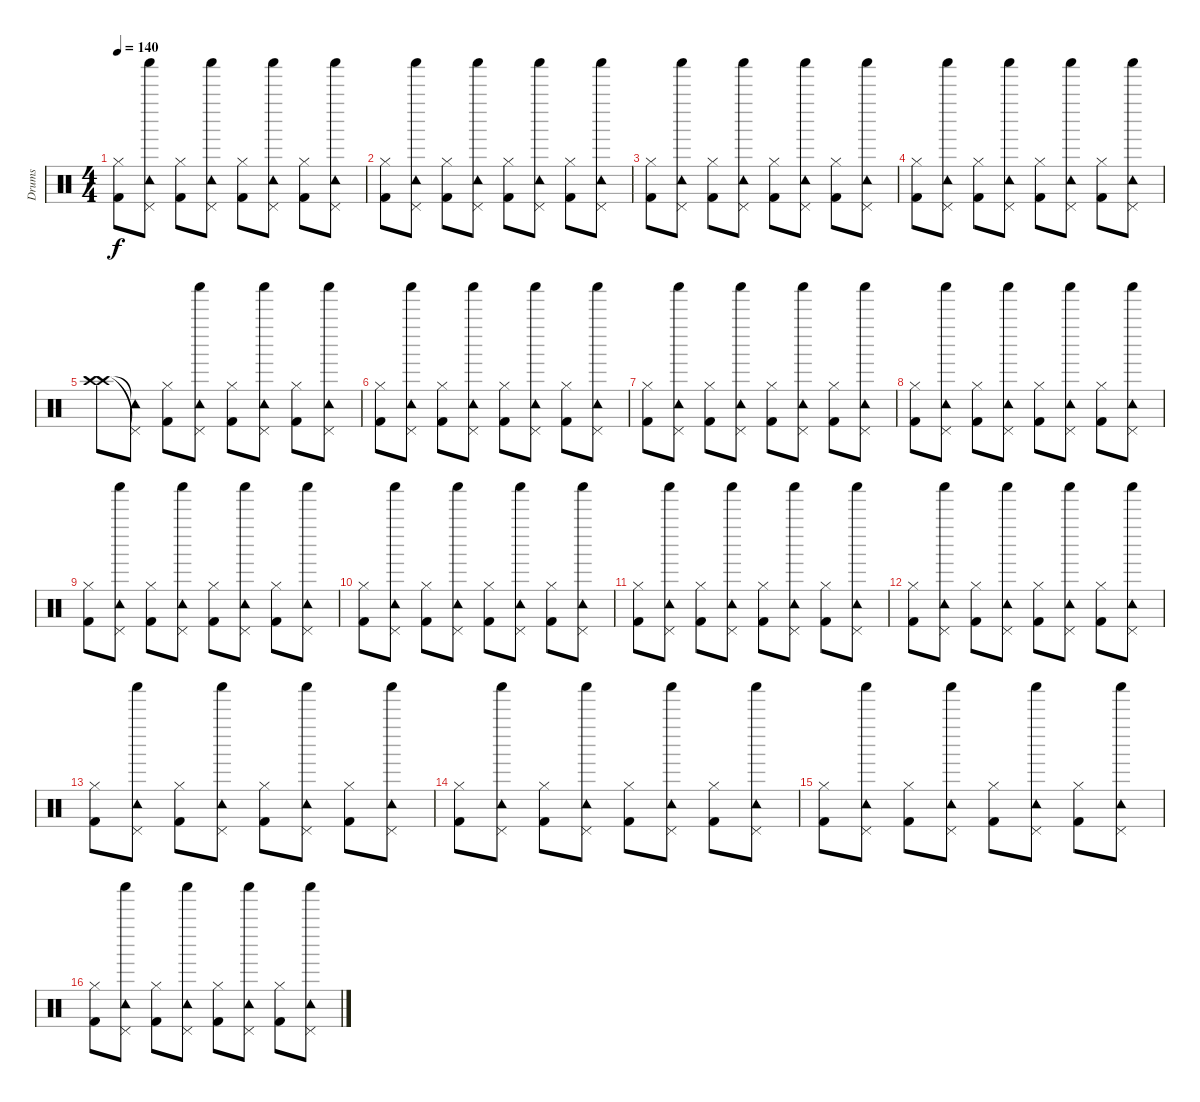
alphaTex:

\track ("Drums" "Drums") {instrument percussion}
\staff {score}
\articulation defaults
\ts (4 4)
\tempo 140
\clef neutral
\ks c
("Kick (hit) 2" "Hi-Hat (closed)").8{dy f} ("Pedal Hi-Hat (hit)" "Tambourine (hit)" "Shaker (hit)").8 ("Kick (hit) 2" "Hi-Hat (closed)").8 ("Pedal Hi-Hat (hit)" "Tambourine (hit)" "Shaker (hit)").8 ("Kick (hit) 2" "Hi-Hat (closed)").8 ("Pedal Hi-Hat (hit)" "Tambourine (hit)" "Shaker (hit)").8 ("Kick (hit) 2" "Hi-Hat (closed)").8 ("Pedal Hi-Hat (hit)" "Tambourine (hit)" "Shaker (hit)").8 |
("Kick (hit) 2" "Hi-Hat (closed)").8 ("Pedal Hi-Hat (hit)" "Tambourine (hit)" "Shaker (hit)").8 ("Kick (hit) 2" "Hi-Hat (closed)").8 ("Pedal Hi-Hat (hit)" "Tambourine (hit)" "Shaker (hit)").8 ("Kick (hit) 2" "Hi-Hat (closed)").8 ("Pedal Hi-Hat (hit)" "Tambourine (hit)" "Shaker (hit)").8 ("Kick (hit) 2" "Hi-Hat (closed)").8 ("Pedal Hi-Hat (hit)" "Tambourine (hit)" "Shaker (hit)").8 |
("Kick (hit) 2" "Hi-Hat (closed)").8 ("Pedal Hi-Hat (hit)" "Tambourine (hit)" "Shaker (hit)").8 ("Kick (hit) 2" "Hi-Hat (closed)").8 ("Pedal Hi-Hat (hit)" "Tambourine (hit)" "Shaker (hit)").8 ("Kick (hit) 2" "Hi-Hat (closed)").8 ("Pedal Hi-Hat (hit)" "Tambourine (hit)" "Shaker (hit)").8 ("Kick (hit) 2" "Hi-Hat (closed)").8 ("Pedal Hi-Hat (hit)" "Tambourine (hit)" "Shaker (hit)").8 |
("Kick (hit) 2" "Hi-Hat (closed)").8 ("Pedal Hi-Hat (hit)" "Tambourine (hit)" "Shaker (hit)").8 ("Kick (hit) 2" "Hi-Hat (closed)").8 ("Pedal Hi-Hat (hit)" "Tambourine (hit)" "Shaker (hit)").8 ("Kick (hit) 2" "Hi-Hat (closed)").8 ("Pedal Hi-Hat (hit)" "Tambourine (hit)" "Shaker (hit)").8 ("Kick (hit) 2" "Hi-Hat (closed)").8 ("Pedal Hi-Hat (hit)" "Tambourine (hit)" "Shaker (hit)").8 |
("Crash high (hit)" "Crash high (hit)").8 ("Pedal Hi-Hat (hit)"{t} "Tambourine (hit)"{t}).8 ("Hi-Hat (closed)" "Kick (hit) 2").8 ("Pedal Hi-Hat (hit)" "Tambourine (hit)" "Shaker (hit)").8 ("Kick (hit) 2" "Hi-Hat (closed)").8 ("Pedal Hi-Hat (hit)" "Tambourine (hit)" "Shaker (hit)").8 ("Kick (hit) 2" "Hi-Hat (closed)").8 ("Pedal Hi-Hat (hit)" "Tambourine (hit)" "Shaker (hit)").8 |
("Kick (hit) 2" "Hi-Hat (closed)").8 ("Pedal Hi-Hat (hit)" "Tambourine (hit)" "Shaker (hit)").8 ("Kick (hit) 2" "Hi-Hat (closed)").8 ("Pedal Hi-Hat (hit)" "Tambourine (hit)" "Shaker (hit)").8 ("Kick (hit) 2" "Hi-Hat (closed)").8 ("Pedal Hi-Hat (hit)" "Tambourine (hit)" "Shaker (hit)").8 ("Kick (hit) 2" "Hi-Hat (closed)").8 ("Pedal Hi-Hat (hit)" "Tambourine (hit)" "Shaker (hit)").8 |
("Kick (hit) 2" "Hi-Hat (closed)").8 ("Pedal Hi-Hat (hit)" "Tambourine (hit)" "Shaker (hit)").8 ("Kick (hit) 2" "Hi-Hat (closed)").8 ("Pedal Hi-Hat (hit)" "Tambourine (hit)" "Shaker (hit)").8 ("Kick (hit) 2" "Hi-Hat (closed)").8 ("Pedal Hi-Hat (hit)" "Tambourine (hit)" "Shaker (hit)").8 ("Kick (hit) 2" "Hi-Hat (closed)").8 ("Pedal Hi-Hat (hit)" "Tambourine (hit)" "Shaker (hit)").8 |
("Kick (hit) 2" "Hi-Hat (closed)").8 ("Pedal Hi-Hat (hit)" "Tambourine (hit)" "Shaker (hit)").8 ("Kick (hit) 2" "Hi-Hat (closed)").8 ("Pedal Hi-Hat (hit)" "Tambourine (hit)" "Shaker (hit)").8 ("Kick (hit) 2" "Hi-Hat (closed)").8 ("Pedal Hi-Hat (hit)" "Tambourine (hit)" "Shaker (hit)").8 ("Kick (hit) 2" "Hi-Hat (closed)").8 ("Pedal Hi-Hat (hit)" "Tambourine (hit)" "Shaker (hit)").8 |
("Kick (hit) 2" "Hi-Hat (closed)").8 ("Pedal Hi-Hat (hit)" "Tambourine (hit)" "Shaker (hit)").8 ("Kick (hit) 2" "Hi-Hat (closed)").8 ("Pedal Hi-Hat (hit)" "Tambourine (hit)" "Shaker (hit)").8 ("Kick (hit) 2" "Hi-Hat (closed)").8 ("Pedal Hi-Hat (hit)" "Tambourine (hit)" "Shaker (hit)").8 ("Kick (hit) 2" "Hi-Hat (closed)").8 ("Pedal Hi-Hat (hit)" "Tambourine (hit)" "Shaker (hit)").8 |
("Kick (hit) 2" "Hi-Hat (closed)").8 ("Pedal Hi-Hat (hit)" "Tambourine (hit)" "Shaker (hit)").8 ("Kick (hit) 2" "Hi-Hat (closed)").8 ("Pedal Hi-Hat (hit)" "Tambourine (hit)" "Shaker (hit)").8 ("Kick (hit) 2" "Hi-Hat (closed)").8 ("Pedal Hi-Hat (hit)" "Tambourine (hit)" "Shaker (hit)").8 ("Kick (hit) 2" "Hi-Hat (closed)").8 ("Pedal Hi-Hat (hit)" "Tambourine (hit)" "Shaker (hit)").8 |
("Kick (hit) 2" "Hi-Hat (closed)").8 ("Pedal Hi-Hat (hit)" "Tambourine (hit)" "Shaker (hit)").8 ("Kick (hit) 2" "Hi-Hat (closed)").8 ("Pedal Hi-Hat (hit)" "Tambourine (hit)" "Shaker (hit)").8 ("Kick (hit) 2" "Hi-Hat (closed)").8 ("Pedal Hi-Hat (hit)" "Tambourine (hit)" "Shaker (hit)").8 ("Kick (hit) 2" "Hi-Hat (closed)").8 ("Pedal Hi-Hat (hit)" "Tambourine (hit)" "Shaker (hit)").8 |
("Kick (hit) 2" "Hi-Hat (closed)").8 ("Pedal Hi-Hat (hit)" "Tambourine (hit)" "Shaker (hit)").8 ("Kick (hit) 2" "Hi-Hat (closed)").8 ("Pedal Hi-Hat (hit)" "Tambourine (hit)" "Shaker (hit)").8 ("Kick (hit) 2" "Hi-Hat (closed)").8 ("Pedal Hi-Hat (hit)" "Tambourine (hit)" "Shaker (hit)").8 ("Kick (hit) 2" "Hi-Hat (closed)").8 ("Pedal Hi-Hat (hit)" "Tambourine (hit)" "Shaker (hit)").8 |
("Kick (hit) 2" "Hi-Hat (closed)").8 ("Pedal Hi-Hat (hit)" "Tambourine (hit)" "Shaker (hit)").8 ("Kick (hit) 2" "Hi-Hat (closed)").8 ("Pedal Hi-Hat (hit)" "Tambourine (hit)" "Shaker (hit)").8 ("Kick (hit) 2" "Hi-Hat (closed)").8 ("Pedal Hi-Hat (hit)" "Tambourine (hit)" "Shaker (hit)").8 ("Kick (hit) 2" "Hi-Hat (closed)").8 ("Pedal Hi-Hat (hit)" "Tambourine (hit)" "Shaker (hit)").8 |
("Kick (hit) 2" "Hi-Hat (closed)").8 ("Pedal Hi-Hat (hit)" "Tambourine (hit)" "Shaker (hit)").8 ("Kick (hit) 2" "Hi-Hat (closed)").8 ("Pedal Hi-Hat (hit)" "Tambourine (hit)" "Shaker (hit)").8 ("Kick (hit) 2" "Hi-Hat (closed)").8 ("Pedal Hi-Hat (hit)" "Tambourine (hit)" "Shaker (hit)").8 ("Kick (hit) 2" "Hi-Hat (closed)").8 ("Pedal Hi-Hat (hit)" "Tambourine (hit)" "Shaker (hit)").8 |
("Kick (hit) 2" "Hi-Hat (closed)").8 ("Pedal Hi-Hat (hit)" "Tambourine (hit)" "Shaker (hit)").8 ("Kick (hit) 2" "Hi-Hat (closed)").8 ("Pedal Hi-Hat (hit)" "Tambourine (hit)" "Shaker (hit)").8 ("Kick (hit) 2" "Hi-Hat (closed)").8 ("Pedal Hi-Hat (hit)" "Tambourine (hit)" "Shaker (hit)").8 ("Kick (hit) 2" "Hi-Hat (closed)").8 ("Pedal Hi-Hat (hit)" "Tambourine (hit)" "Shaker (hit)").8 |
("Kick (hit) 2" "Hi-Hat (closed)").8 ("Pedal Hi-Hat (hit)" "Tambourine (hit)" "Shaker (hit)").8 ("Kick (hit) 2" "Hi-Hat (closed)").8 ("Pedal Hi-Hat (hit)" "Tambourine (hit)" "Shaker (hit)").8 ("Kick (hit) 2" "Hi-Hat (closed)").8 ("Pedal Hi-Hat (hit)" "Tambourine (hit)" "Shaker (hit)").8 ("Kick (hit) 2" "Hi-Hat (closed)").8 ("Pedal Hi-Hat (hit)" "Tambourine (hit)" "Shaker (hit)").8
